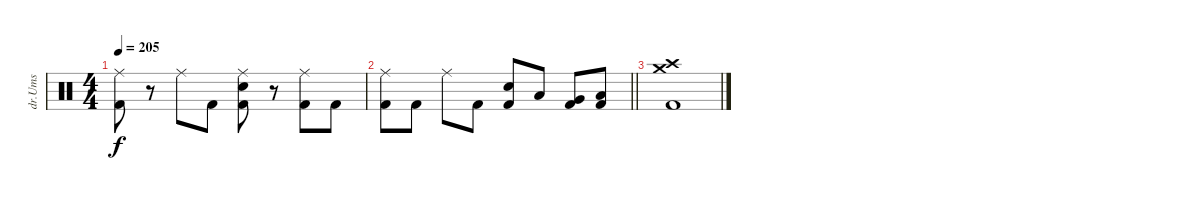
\track ("dr.Ums" "dr.Ums") {instrument percussion}
\staff {score}
\articulation defaults
\ts (4 4)
\tempo 205
\clef neutral
\ks c
("Ride (middle)" "Kick (hit) 2").8{dy f} r.8 "Ride (middle)".8 "Kick (hit) 2".8 ("Ride (middle)" "Snare (hit) 2" "Kick (hit) 2").8 r.8 ("Ride (middle)" "Kick (hit) 2").8 "Kick (hit) 2".8 |
\barLineRight lightlight
("Ride (middle)" "Kick (hit) 2").8 "Kick (hit) 2".8 "Ride (middle)".8 "Kick (hit) 2".8 ("Snare (hit) 2" "Kick (hit) 2").8 "Low Tom (hit)".8 ("Very Low Tom (hit)" "Kick (hit) 2").8 ("Low Floor Tom (hit)" "Kick (hit) 2").8 |
("Crash high (hit)" "Crash medium (hit)" "Kick (hit) 2").1
